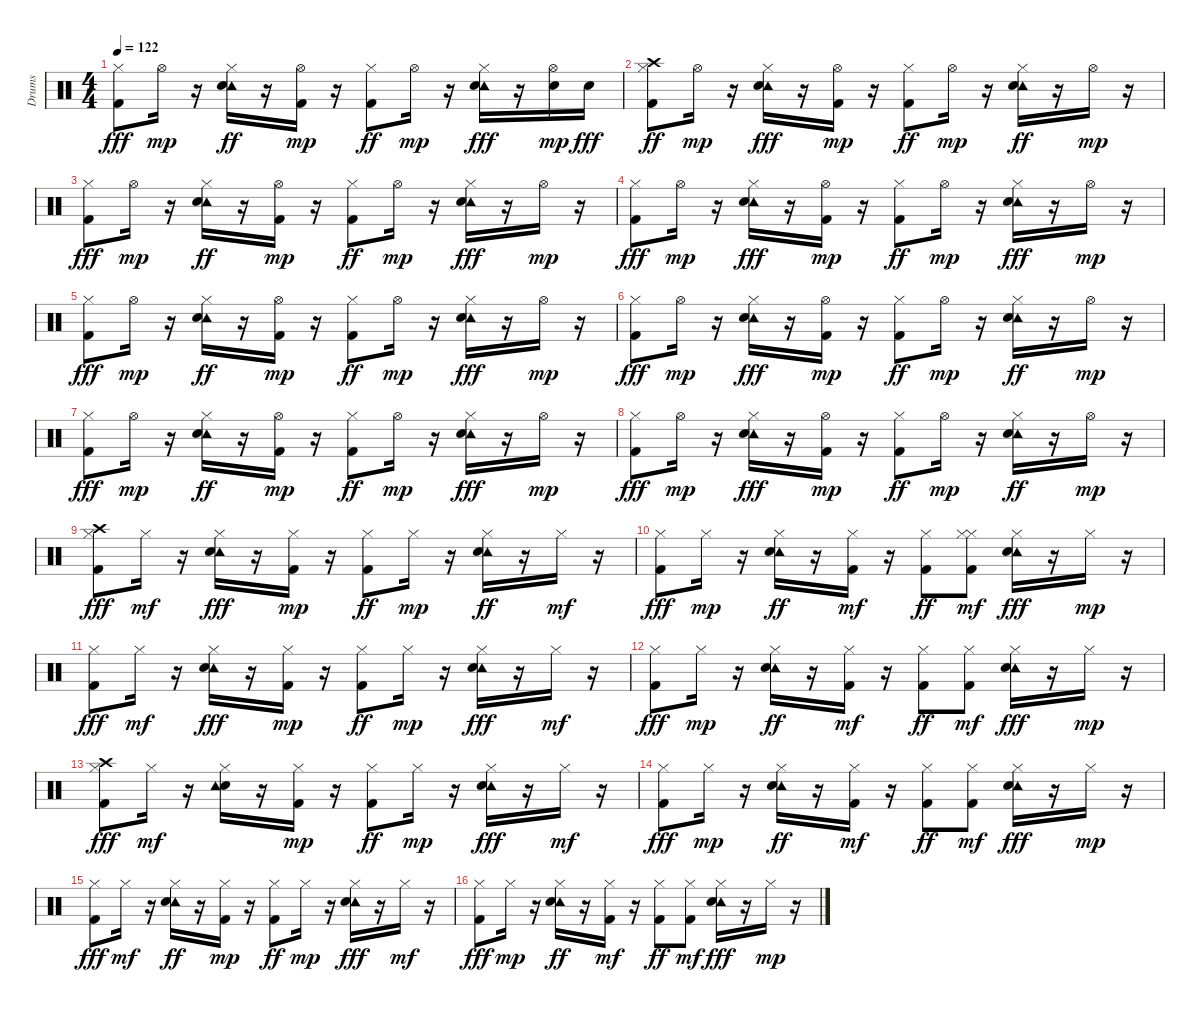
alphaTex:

\track ("Drums" "Drums") {instrument percussion}
\staff {score}
\articulation defaults
\ts (4 4)
\tempo 122
\clef neutral
\ks c
("Kick (hit) 2" "Hi-Hat (closed)").8{dy fff} "Hi-Hat (open)".16{dy mp} r.16 ("Tambourine (hit)" "Snare (hit) 2" "Hi-Hat (closed)").16{dy ff} r.16 ("Kick (hit) 2" "Hi-Hat (open)").16{dy mp} r.16 ("Kick (hit) 2" "Hi-Hat (closed)").8{dy ff} "Hi-Hat (open)".16{dy mp} r.16 ("Tambourine (hit)" "Snare (hit) 2" "Hi-Hat (closed)").16{dy fff} r.16 ("Snare (hit) 2" "Hi-Hat (open)").16{dy mp} "Snare (hit) 2".16{dy fff} |
("Hi-Hat (closed)" "Kick (hit) 2" "Crash high (hit)").8{dy ff} "Hi-Hat (open)".16{dy mp} r.16 ("Tambourine (hit)" "Hi-Hat (closed)" "Snare (hit) 2").16{dy fff} r.16 ("Kick (hit) 2" "Hi-Hat (open)").16{dy mp} r.16 ("Kick (hit) 2" "Hi-Hat (closed)").8{dy ff} "Hi-Hat (open)".16{dy mp} r.16 ("Tambourine (hit)" "Snare (hit) 2" "Hi-Hat (closed)").16{dy ff} r.16 "Hi-Hat (open)".16{dy mp} r.16 |
("Kick (hit) 2" "Hi-Hat (closed)").8{dy fff} "Hi-Hat (open)".16{dy mp} r.16 ("Tambourine (hit)" "Snare (hit) 2" "Hi-Hat (closed)").16{dy ff} r.16 ("Kick (hit) 2" "Hi-Hat (open)").16{dy mp} r.16 ("Kick (hit) 2" "Hi-Hat (closed)").8{dy ff} "Hi-Hat (open)".16{dy mp} r.16 ("Tambourine (hit)" "Snare (hit) 2" "Hi-Hat (closed)").16{dy fff} r.16 "Hi-Hat (open)".16{dy mp} r.16 |
("Kick (hit) 2" "Hi-Hat (closed)").8{dy fff} "Hi-Hat (open)".16{dy mp} r.16 ("Tambourine (hit)" "Hi-Hat (closed)" "Snare (hit) 2").16{dy fff} r.16 ("Kick (hit) 2" "Hi-Hat (open)").16{dy mp} r.16 ("Kick (hit) 2" "Hi-Hat (closed)").8{dy ff} "Hi-Hat (open)".16{dy mp} r.16 ("Tambourine (hit)" "Hi-Hat (closed)" "Snare (hit) 2").16{dy fff} r.16 "Hi-Hat (open)".16{dy mp} r.16 |
("Kick (hit) 2" "Hi-Hat (closed)").8{dy fff} "Hi-Hat (open)".16{dy mp} r.16 ("Tambourine (hit)" "Snare (hit) 2" "Hi-Hat (closed)").16{dy ff} r.16 ("Kick (hit) 2" "Hi-Hat (open)").16{dy mp} r.16 ("Kick (hit) 2" "Hi-Hat (closed)").8{dy ff} "Hi-Hat (open)".16{dy mp} r.16 ("Tambourine (hit)" "Snare (hit) 2" "Hi-Hat (closed)").16{dy fff} r.16 "Hi-Hat (open)".16{dy mp} r.16 |
("Kick (hit) 2" "Hi-Hat (closed)").8{dy fff} "Hi-Hat (open)".16{dy mp} r.16 ("Tambourine (hit)" "Hi-Hat (closed)" "Snare (hit) 2").16{dy fff} r.16 ("Kick (hit) 2" "Hi-Hat (open)").16{dy mp} r.16 ("Kick (hit) 2" "Hi-Hat (closed)").8{dy ff} "Hi-Hat (open)".16{dy mp} r.16 ("Tambourine (hit)" "Snare (hit) 2" "Hi-Hat (closed)").16{dy ff} r.16 "Hi-Hat (open)".16{dy mp} r.16 |
("Kick (hit) 2" "Hi-Hat (closed)").8{dy fff} "Hi-Hat (open)".16{dy mp} r.16 ("Tambourine (hit)" "Snare (hit) 2" "Hi-Hat (closed)").16{dy ff} r.16 ("Kick (hit) 2" "Hi-Hat (open)").16{dy mp} r.16 ("Kick (hit) 2" "Hi-Hat (closed)").8{dy ff} "Hi-Hat (open)".16{dy mp} r.16 ("Tambourine (hit)" "Snare (hit) 2" "Hi-Hat (closed)").16{dy fff} r.16 "Hi-Hat (open)".16{dy mp} r.16 |
("Hi-Hat (closed)" "Kick (hit) 2").8{dy fff} "Hi-Hat (open)".16{dy mp} r.16 ("Tambourine (hit)" "Hi-Hat (closed)" "Snare (hit) 2").16{dy fff} r.16 ("Kick (hit) 2" "Hi-Hat (open)").16{dy mp} r.16 ("Kick (hit) 2" "Hi-Hat (closed)").8{dy ff} "Hi-Hat (open)".16{dy mp} r.16 ("Tambourine (hit)" "Snare (hit) 2" "Hi-Hat (closed)").16{dy ff} r.16 "Hi-Hat (open)".16{dy mp} r.16 |
("Crash high (hit)" "Hi-Hat (closed)" "Kick (hit) 2").8{dy fff} "Hi-Hat (closed)".16{dy mf} r.16 ("Tambourine (hit)" "Hi-Hat (closed)" "Snare (hit) 2").16{dy fff} r.16 ("Kick (hit) 2" "Hi-Hat (closed)").16{dy mp} r.16 ("Kick (hit) 2" "Hi-Hat (closed)").8{dy ff} "Hi-Hat (closed)".16{dy mp} r.16 ("Tambourine (hit)" "Snare (hit) 2" "Hi-Hat (closed)").16{dy ff} r.16 "Hi-Hat (closed)".16{dy mf} r.16 |
("Kick (hit) 2" "Hi-Hat (closed)").8{dy fff} "Hi-Hat (closed)".16{dy mp} r.16 ("Tambourine (hit)" "Snare (hit) 2" "Hi-Hat (closed)").16{dy ff} r.16 ("Kick (hit) 2" "Hi-Hat (closed)").16{dy mf} r.16 ("Kick (hit) 2" "Hi-Hat (closed)").8{dy ff} ("Kick (hit) 2" "Hi-Hat (closed)" "Hi-Hat (closed)").8{dy mf} ("Tambourine (hit)" "Snare (hit) 2" "Hi-Hat (closed)").16{dy fff} r.16 "Hi-Hat (closed)".16{dy mp} r.16 |
("Kick (hit) 2" "Hi-Hat (closed)").8{dy fff} "Hi-Hat (closed)".16{dy mf} r.16 ("Tambourine (hit)" "Hi-Hat (closed)" "Snare (hit) 2").16{dy fff} r.16 ("Kick (hit) 2" "Hi-Hat (closed)").16{dy mp} r.16 ("Kick (hit) 2" "Hi-Hat (closed)").8{dy ff} "Hi-Hat (closed)".16{dy mp} r.16 ("Tambourine (hit)" "Hi-Hat (closed)" "Snare (hit) 2").16{dy fff} r.16 "Hi-Hat (closed)".16{dy mf} r.16 |
("Kick (hit) 2" "Hi-Hat (closed)").8{dy fff} "Hi-Hat (closed)".16{dy mp} r.16 ("Tambourine (hit)" "Snare (hit) 2" "Hi-Hat (closed)").16{dy ff} r.16 ("Kick (hit) 2" "Hi-Hat (closed)").16{dy mf} r.16 ("Kick (hit) 2" "Hi-Hat (closed)").8{dy ff} ("Kick (hit) 2" "Hi-Hat (closed)").8{dy mf} ("Tambourine (hit)" "Snare (hit) 2" "Hi-Hat (closed)").16{dy fff} r.16 "Hi-Hat (closed)".16{dy mp} r.16 |
("Hi-Hat (closed)" "Crash high (hit)" "Kick (hit) 2").8{dy fff} "Hi-Hat (closed)".16{dy mf} r.16 ("Snare (hit) 2" "Hi-Hat (closed)" "Tambourine (hit)").16 r.16 ("Kick (hit) 2" "Hi-Hat (closed)").16{dy mp} r.16 ("Kick (hit) 2" "Hi-Hat (closed)").8{dy ff} "Hi-Hat (closed)".16{dy mp} r.16 ("Tambourine (hit)" "Hi-Hat (closed)" "Snare (hit) 2").16{dy fff} r.16 "Hi-Hat (closed)".16{dy mf} r.16 |
("Kick (hit) 2" "Hi-Hat (closed)").8{dy fff} "Hi-Hat (closed)".16{dy mp} r.16 ("Tambourine (hit)" "Snare (hit) 2" "Hi-Hat (closed)").16{dy ff} r.16 ("Kick (hit) 2" "Hi-Hat (closed)").16{dy mf} r.16 ("Kick (hit) 2" "Hi-Hat (closed)").8{dy ff} ("Kick (hit) 2" "Hi-Hat (closed)").8{dy mf} ("Tambourine (hit)" "Snare (hit) 2" "Hi-Hat (closed)").16{dy fff} r.16 "Hi-Hat (closed)".16{dy mp} r.16 |
("Hi-Hat (closed)" "Kick (hit) 2").8{dy fff} "Hi-Hat (closed)".16{dy mf} r.16 ("Tambourine (hit)" "Snare (hit) 2" "Hi-Hat (closed)").16{dy ff} r.16 ("Kick (hit) 2" "Hi-Hat (closed)").16{dy mp} r.16 ("Kick (hit) 2" "Hi-Hat (closed)").8{dy ff} "Hi-Hat (closed)".16{dy mp} r.16 ("Tambourine (hit)" "Hi-Hat (closed)" "Snare (hit) 2").16{dy fff} r.16 "Hi-Hat (closed)".16{dy mf} r.16 |
("Kick (hit) 2" "Hi-Hat (closed)").8{dy fff} "Hi-Hat (closed)".16{dy mp} r.16 ("Tambourine (hit)" "Snare (hit) 2" "Hi-Hat (closed)").16{dy ff} r.16 ("Kick (hit) 2" "Hi-Hat (closed)").16{dy mf} r.16 ("Kick (hit) 2" "Hi-Hat (closed)").8{dy ff} ("Kick (hit) 2" "Hi-Hat (closed)").8{dy mf} ("Tambourine (hit)" "Snare (hit) 2" "Hi-Hat (closed)").16{dy fff} r.16 "Hi-Hat (closed)".16{dy mp} r.16
